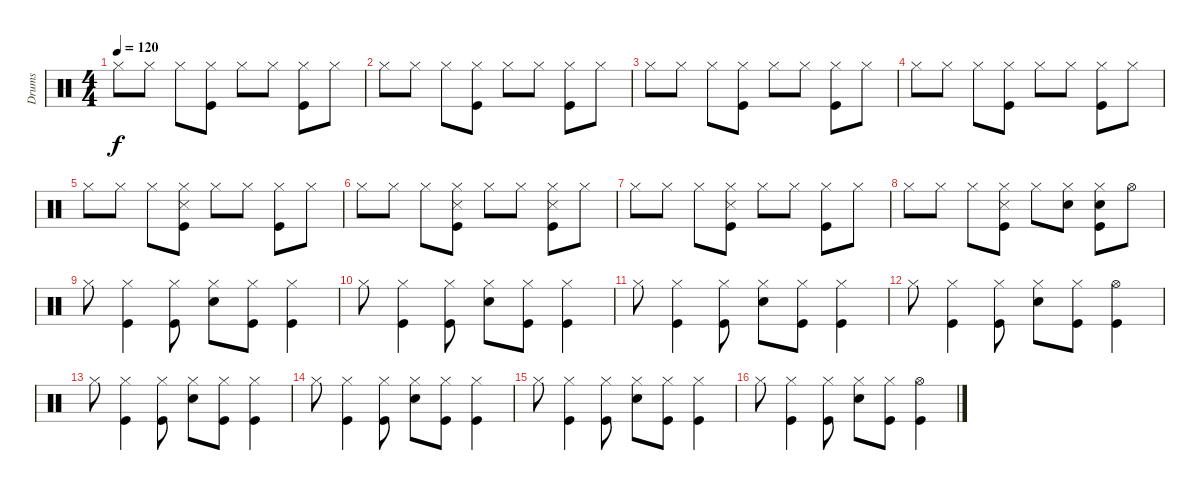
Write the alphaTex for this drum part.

\track ("Drums" "Drums") {instrument percussion}
\staff {score}
\articulation defaults
\ts (4 4)
\tempo 120
\clef neutral
\ks c "Hi-Hat (closed)".8{dy f} "Hi-Hat (closed)".8 "Hi-Hat (closed)".8
("Hi-Hat (closed)" "Kick (hit)").8 "Hi-Hat (closed)".8 "Hi-Hat (closed)".8 ("Hi-Hat (closed)" "Kick (hit)").8 "Hi-Hat (closed)".8 |
"Hi-Hat (closed)".8 "Hi-Hat (closed)".8 "Hi-Hat (closed)".8 ("Hi-Hat (closed)" "Kick (hit)").8 "Hi-Hat (closed)".8 "Hi-Hat (closed)".8 ("Hi-Hat (closed)" "Kick (hit)").8 "Hi-Hat (closed)".8 |
"Hi-Hat (closed)".8 "Hi-Hat (closed)".8 "Hi-Hat (closed)".8 ("Hi-Hat (closed)" "Kick (hit)").8 "Hi-Hat (closed)".8 "Hi-Hat (closed)".8 ("Hi-Hat (closed)" "Kick (hit)").8 "Hi-Hat (closed)".8 |
"Hi-Hat (closed)".8 "Hi-Hat (closed)".8 "Hi-Hat (closed)".8 ("Hi-Hat (closed)" "Kick (hit)").8 "Hi-Hat (closed)".8 "Hi-Hat (closed)".8 ("Hi-Hat (closed)" "Kick (hit)").8 "Hi-Hat (closed)".8 |
"Hi-Hat (closed)".8 "Hi-Hat (closed)".8 "Hi-Hat (closed)".8 ("Snare (side stick) 3" "Hi-Hat (closed)" "Kick (hit)").8 "Hi-Hat (closed)".8 "Hi-Hat (closed)".8 ("Hi-Hat (closed)" "Kick (hit)").8 "Hi-Hat (closed)".8 |
"Hi-Hat (closed)".8 "Hi-Hat (closed)".8 "Hi-Hat (closed)".8 ("Snare (side stick) 3" "Hi-Hat (closed)" "Kick (hit)").8 "Hi-Hat (closed)".8 "Hi-Hat (closed)".8 ("Snare (side stick) 3" "Hi-Hat (closed)" "Kick (hit)").8 "Hi-Hat (closed)".8 |
"Hi-Hat (closed)".8 "Hi-Hat (closed)".8 "Hi-Hat (closed)".8 ("Snare (side stick) 3" "Hi-Hat (closed)" "Kick (hit)").8 "Hi-Hat (closed)".8 "Hi-Hat (closed)".8 ("Hi-Hat (closed)" "Kick (hit)").8 "Hi-Hat (closed)".8 |
"Hi-Hat (closed)".8 "Hi-Hat (closed)".8 "Hi-Hat (closed)".8 ("Snare (side stick) 3" "Hi-Hat (closed)" "Kick (hit)").8 "Hi-Hat (closed)".8 ("Snare (hit) 2" "Hi-Hat (closed)").8 ("Snare (hit) 2" "Hi-Hat (closed)" "Kick (hit)").8 "Hi-Hat (open)".8 |
"Hi-Hat (closed)".8 ("Hi-Hat (closed)" "Kick (hit)").4 ("Hi-Hat (closed)" "Kick (hit)").8 ("Snare (hit) 2" "Hi-Hat (closed)").8 ("Hi-Hat (closed)" "Kick (hit)").8 ("Hi-Hat (closed)" "Kick (hit)").4 |
"Hi-Hat (closed)".8 ("Hi-Hat (closed)" "Kick (hit)").4 ("Hi-Hat (closed)" "Kick (hit)").8 ("Snare (hit) 2" "Hi-Hat (closed)").8 ("Hi-Hat (closed)" "Kick (hit)").8 ("Hi-Hat (closed)" "Kick (hit)").4 |
"Hi-Hat (closed)".8 ("Hi-Hat (closed)" "Kick (hit)").4 ("Hi-Hat (closed)" "Kick (hit)").8 ("Snare (hit) 2" "Hi-Hat (closed)").8 ("Hi-Hat (closed)" "Kick (hit)").8 ("Hi-Hat (closed)" "Kick (hit)").4 |
"Hi-Hat (closed)".8 ("Hi-Hat (closed)" "Kick (hit)").4 ("Hi-Hat (closed)" "Kick (hit)").8 ("Snare (hit) 2" "Hi-Hat (closed)").8 ("Hi-Hat (closed)" "Kick (hit)").8 ("Hi-Hat (open)" "Kick (hit)").4 |
"Hi-Hat (closed)".8 ("Hi-Hat (closed)" "Kick (hit)").4 ("Hi-Hat (closed)" "Kick (hit)").8 ("Snare (hit) 2" "Hi-Hat (closed)").8 ("Hi-Hat (closed)" "Kick (hit)").8 ("Hi-Hat (closed)" "Kick (hit)").4 |
"Hi-Hat (closed)".8 ("Hi-Hat (closed)" "Kick (hit)").4 ("Hi-Hat (closed)" "Kick (hit)").8 ("Snare (hit) 2" "Hi-Hat (closed)").8 ("Hi-Hat (closed)" "Kick (hit)").8 ("Hi-Hat (closed)" "Kick (hit)").4 |
"Hi-Hat (closed)".8 ("Hi-Hat (closed)" "Kick (hit)").4 ("Hi-Hat (closed)" "Kick (hit)").8 ("Snare (hit) 2" "Hi-Hat (closed)").8 ("Hi-Hat (closed)" "Kick (hit)").8 ("Hi-Hat (closed)" "Kick (hit)").4 |
"Hi-Hat (closed)".8 ("Hi-Hat (closed)" "Kick (hit)").4 ("Hi-Hat (closed)" "Kick (hit)").8 ("Snare (hit) 2" "Hi-Hat (closed)").8 ("Hi-Hat (closed)" "Kick (hit)").8 ("Hi-Hat (open)" "Kick (hit)").4
